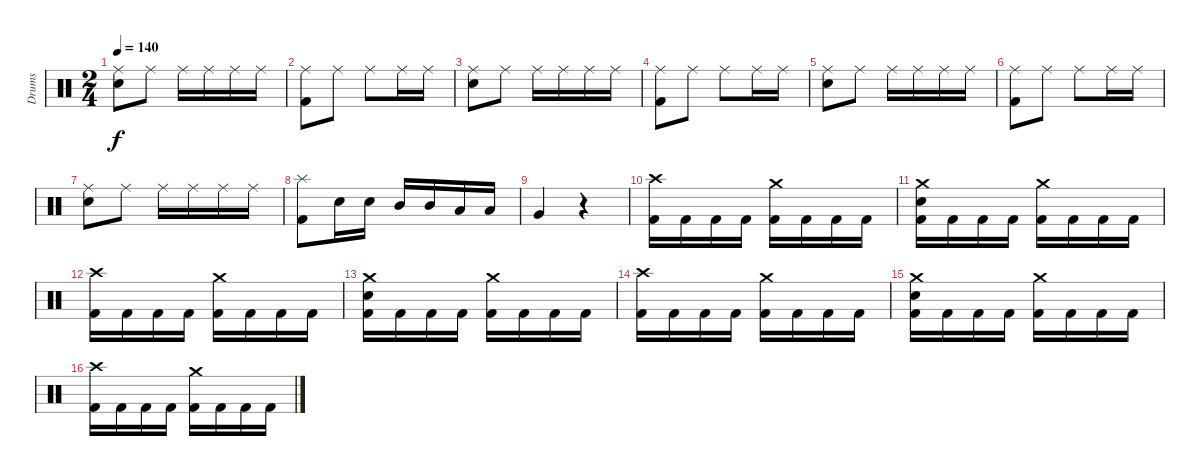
\track ("Drums" "Drums") {instrument percussion}
\staff {score}
\articulation defaults
\ts (2 4)
\tempo 140
\clef neutral
\ks c
("Electric Snare (hit)" "Ride (middle)").8{dy f} "Ride (middle)".8 "Ride (middle)".16 "Ride (middle)".16 "Ride (middle)".16 "Ride (middle)".16 |
("Kick (hit) 2" "Ride (middle)").8 "Ride (middle)".8 "Ride (middle)".8 "Ride (middle)".16 "Ride (middle)".16 |
("Electric Snare (hit)" "Ride (middle)").8 "Ride (middle)".8 "Ride (middle)".16 "Ride (middle)".16 "Ride (middle)".16 "Ride (middle)".16 |
("Kick (hit) 2" "Ride (middle)").8 "Ride (middle)".8 "Ride (middle)".8 "Ride (middle)".16 "Ride (middle)".16 |
("Electric Snare (hit)" "Ride (middle)").8 "Ride (middle)".8 "Ride (middle)".16 "Ride (middle)".16 "Ride (middle)".16 "Ride (middle)".16 |
("Kick (hit) 2" "Ride (middle)").8 "Ride (middle)".8 "Ride (middle)".8 "Ride (middle)".16 "Ride (middle)".16 |
("Electric Snare (hit)" "Ride (middle)").8 "Ride (middle)".8 "Ride (middle)".16 "Ride (middle)".16 "Ride (middle)".16 "Ride (middle)".16 |
("Kick (hit) 2" "Splash (hit)").8 "Electric Snare (hit)".16 "Electric Snare (hit)".16 "Mid Tom (hit)".16 "Mid Tom (hit)".16 "Low Tom (hit)".16 "Low Tom (hit)".16 |
"Very Low Tom (hit)".4 r.4 |
("Kick (hit) 2" "Crash high (hit)").16 "Kick (hit) 2".16 "Kick (hit) 2".16 "Kick (hit) 2".16 ("Kick (hit) 2" "Crash medium (hit)").16 "Kick (hit) 2".16 "Kick (hit) 2".16 "Kick (hit) 2".16 |
("Kick (hit) 2" "Electric Snare (hit)" "Crash medium (hit)").16 "Kick (hit) 2".16 "Kick (hit) 2".16 "Kick (hit) 2".16 ("Kick (hit) 2" "Crash medium (hit)").16 "Kick (hit) 2".16 "Kick (hit) 2".16 "Kick (hit) 2".16 |
("Kick (hit) 2" "Crash high (hit)").16 "Kick (hit) 2".16 "Kick (hit) 2".16 "Kick (hit) 2".16 ("Kick (hit) 2" "Crash medium (hit)").16 "Kick (hit) 2".16 "Kick (hit) 2".16 "Kick (hit) 2".16 |
("Kick (hit) 2" "Electric Snare (hit)" "Crash medium (hit)").16 "Kick (hit) 2".16 "Kick (hit) 2".16 "Kick (hit) 2".16 ("Kick (hit) 2" "Crash medium (hit)").16 "Kick (hit) 2".16 "Kick (hit) 2".16 "Kick (hit) 2".16 |
("Kick (hit) 2" "Crash high (hit)").16 "Kick (hit) 2".16 "Kick (hit) 2".16 "Kick (hit) 2".16 ("Kick (hit) 2" "Crash medium (hit)").16 "Kick (hit) 2".16 "Kick (hit) 2".16 "Kick (hit) 2".16 |
("Kick (hit) 2" "Electric Snare (hit)" "Crash medium (hit)").16 "Kick (hit) 2".16 "Kick (hit) 2".16 "Kick (hit) 2".16 ("Kick (hit) 2" "Crash medium (hit)").16 "Kick (hit) 2".16 "Kick (hit) 2".16 "Kick (hit) 2".16 |
("Kick (hit) 2" "Crash high (hit)").16 "Kick (hit) 2".16 "Kick (hit) 2".16 "Kick (hit) 2".16 ("Kick (hit) 2" "Crash medium (hit)").16 "Kick (hit) 2".16 "Kick (hit) 2".16 "Kick (hit) 2".16
